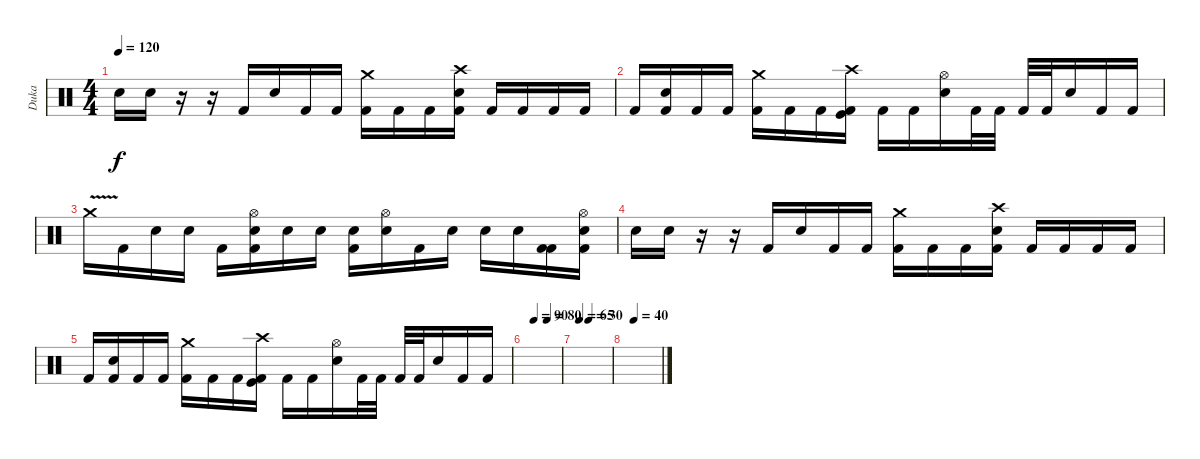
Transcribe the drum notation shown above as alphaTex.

\track ("Duka" "Duka") {instrument percussion}
\staff {score}
\articulation defaults
\ts (4 4)
\tempo 120
\clef neutral
\ks c "Snare (hit)".16{dy f} "Snare (hit)".16
r.16 r.16 "Kick (hit) 2".16 "Snare (hit) 2".16 "Kick (hit) 2".16 "Kick (hit) 2".16 ("Kick (hit) 2" "Crash medium (hit)").16 "Kick (hit) 2".16 "Kick (hit) 2".16 ("Crash high (hit)" "Snare (hit) 2" "Kick (hit) 2").16 "Kick (hit) 2".16 "Kick (hit) 2".16 "Kick (hit) 2".16 "Kick (hit) 2".16 |
"Kick (hit) 2".16 ("Snare (hit) 2" "Kick (hit) 2").16 "Kick (hit) 2".16 "Kick (hit) 2".16 ("Crash medium (hit)" "Kick (hit) 2").16 "Kick (hit) 2".16 "Kick (hit) 2".16 ("Crash high (hit)" "Kick (hit)" "Kick (hit) 2").16 "Kick (hit) 2".16 "Kick (hit) 2".16 ("Hi-Hat (open)" "Snare (hit) 2").16 "Kick (hit) 2".32 "Kick (hit) 2".32 "Kick (hit) 2".32 "Kick (hit) 2".32 "Snare (hit) 2".16 "Kick (hit) 2".16 "Kick (hit) 2".16 |
"Crash medium (hit)"{v}.16 "Kick (hit) 2".16 "Snare (hit)".16 "Snare (hit) 2".16 "Kick (hit) 2".16 ("Hi-Hat (open)" "Snare (hit)" "Kick (hit) 2").16 "Snare (hit)".16 "Snare (hit)".16 ("Snare (hit)" "Kick (hit) 2").16 ("Hi-Hat (open)" "Snare (hit) 2").16 "Kick (hit) 2".16 "Snare (hit)".16 "Snare (hit)".16 "Snare (hit)".16 ("Kick (hit) 2" "Kick (hit) 2").16 ("Hi-Hat (open)" "Snare (hit) 2" "Kick (hit) 2").16 |
"Snare (hit)".16 "Snare (hit)".16 r.16 r.16 "Kick (hit) 2".16 "Snare (hit) 2".16 "Kick (hit) 2".16 "Kick (hit) 2".16 ("Kick (hit) 2" "Crash medium (hit)").16 "Kick (hit) 2".16 "Kick (hit) 2".16 ("Crash high (hit)" "Snare (hit) 2" "Kick (hit) 2").16 "Kick (hit) 2".16 "Kick (hit) 2".16 "Kick (hit) 2".16 "Kick (hit) 2".16 |
"Kick (hit) 2".16 ("Snare (hit) 2" "Kick (hit) 2").16 "Kick (hit) 2".16 "Kick (hit) 2".16 ("Crash medium (hit)" "Kick (hit) 2").16 "Kick (hit) 2".16 "Kick (hit) 2".16 ("Crash high (hit)" "Kick (hit)" "Kick (hit) 2").16 "Kick (hit) 2".16 "Kick (hit) 2".16 ("Hi-Hat (open)" "Snare (hit) 2").16 "Kick (hit) 2".32 "Kick (hit) 2".32 "Kick (hit) 2".32 "Kick (hit) 2".32 "Snare (hit) 2".16 "Kick (hit) 2".16 "Kick (hit) 2".16 |
\tempo (90 0.25)
\tempo (80 0.625)
|
\tempo (65 0.125)
\tempo (30 0.375)
|
\tempo (40 0.25)
